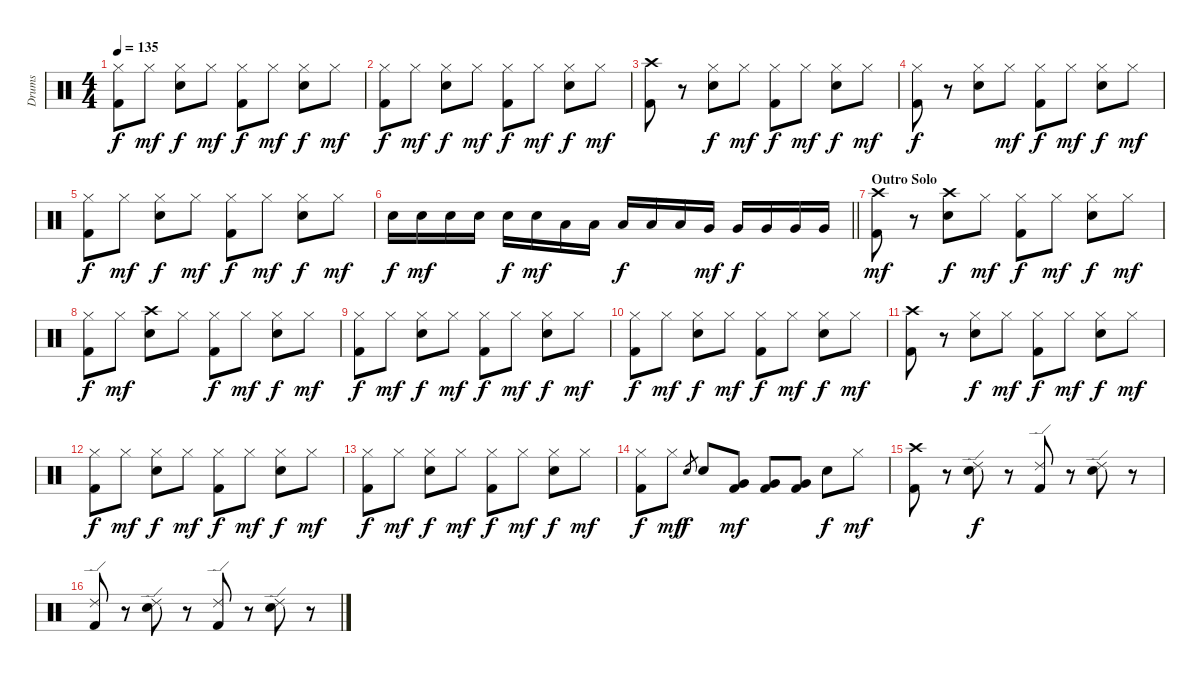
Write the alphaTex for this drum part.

\track ("Drums" "Drums") {instrument percussion}
\staff {score}
\articulation defaults
\ts (4 4)
\tempo 135
\clef neutral
\ks c
("Hi-Hat (closed)" "Kick (hit) 2").8{dy f} "Hi-Hat (closed)".8{dy mf} ("Hi-Hat (closed)" "Snare (hit) 2").8{dy f} "Hi-Hat (closed)".8{dy mf} ("Hi-Hat (closed)" "Kick (hit) 2").8{dy f} "Hi-Hat (closed)".8{dy mf} ("Hi-Hat (closed)" "Snare (hit) 2").8{dy f} "Hi-Hat (closed)".8{dy mf} |
("Hi-Hat (closed)" "Kick (hit) 2").8{dy f} "Hi-Hat (closed)".8{dy mf} ("Hi-Hat (closed)" "Snare (hit) 2").8{dy f} "Hi-Hat (closed)".8{dy mf} ("Hi-Hat (closed)" "Kick (hit) 2").8{dy f} "Hi-Hat (closed)".8{dy mf} ("Hi-Hat (closed)" "Snare (hit) 2").8{dy f} "Hi-Hat (closed)".8{dy mf} |
("Crash high (hit)" "Kick (hit) 2").8 r.8 ("Hi-Hat (closed)" "Snare (hit) 2").8{dy f} "Hi-Hat (closed)".8{dy mf} ("Hi-Hat (closed)" "Kick (hit) 2").8{dy f} "Hi-Hat (closed)".8{dy mf} ("Hi-Hat (closed)" "Snare (hit) 2").8{dy f} "Hi-Hat (closed)".8{dy mf} |
("Hi-Hat (closed)" "Kick (hit) 2").8{dy f} r.8 ("Hi-Hat (closed)" "Snare (hit) 2").8 "Hi-Hat (closed)".8{dy mf} ("Hi-Hat (closed)" "Kick (hit) 2").8{dy f} "Hi-Hat (closed)".8{dy mf} ("Hi-Hat (closed)" "Snare (hit) 2").8{dy f} "Hi-Hat (closed)".8{dy mf} |
("Hi-Hat (closed)" "Kick (hit) 2").8{dy f} "Hi-Hat (closed)".8{dy mf} ("Hi-Hat (closed)" "Snare (hit) 2").8{dy f} "Hi-Hat (closed)".8{dy mf} ("Hi-Hat (closed)" "Kick (hit) 2").8{dy f} "Hi-Hat (closed)".8{dy mf} ("Hi-Hat (closed)" "Snare (hit) 2").8{dy f} "Hi-Hat (closed)".8{dy mf} |
\barLineRight lightlight "Snare (hit) 2".16{dy f} "Snare (hit) 2".16{dy mf} "Snare (hit) 2".16 "Snare (hit) 2".16 "Snare (hit) 2".16{dy f} "Snare (hit) 2".16{dy mf} "Low Tom (hit)".16 "Low Tom (hit)".16 "Low Tom (hit)".16{dy f} "Low Tom (hit)".16 "Low Tom (hit)".16 "Very Low Tom (hit)".16{dy mf} "Very Low Tom (hit)".16{dy f} "Very Low Tom (hit)".16 "Very Low Tom (hit)".16 "Very Low Tom (hit)".16
|
\section ("" "Outro Solo")
("Crash high (hit)" "Kick (hit) 2").8{dy mf} r.8 ("Crash high (hit)" "Snare (hit) 2").8{dy f} "Hi-Hat (closed)".8{dy mf} ("Hi-Hat (closed)" "Kick (hit) 2").8{dy f} "Hi-Hat (closed)".8{dy mf} ("Hi-Hat (closed)" "Snare (hit) 2").8{dy f} "Hi-Hat (closed)".8{dy mf} |
("Hi-Hat (closed)" "Kick (hit) 2").8{dy f} "Hi-Hat (closed)".8{dy mf} ("Crash high (hit)" "Snare (hit) 2").8 "Hi-Hat (closed)".8 ("Hi-Hat (closed)" "Kick (hit) 2").8{dy f} "Hi-Hat (closed)".8{dy mf} ("Hi-Hat (closed)" "Snare (hit) 2").8{dy f} "Hi-Hat (closed)".8{dy mf} |
("Hi-Hat (closed)" "Kick (hit) 2").8{dy f} "Hi-Hat (closed)".8{dy mf} ("Hi-Hat (closed)" "Snare (hit) 2").8{dy f} "Hi-Hat (closed)".8{dy mf} ("Hi-Hat (closed)" "Kick (hit) 2").8{dy f} "Hi-Hat (closed)".8{dy mf} ("Hi-Hat (closed)" "Snare (hit) 2").8{dy f} "Hi-Hat (closed)".8{dy mf} |
("Hi-Hat (closed)" "Kick (hit) 2").8{dy f} "Hi-Hat (closed)".8{dy mf} ("Hi-Hat (closed)" "Snare (hit) 2").8{dy f} "Hi-Hat (closed)".8{dy mf} ("Hi-Hat (closed)" "Kick (hit) 2").8{dy f} "Hi-Hat (closed)".8{dy mf} ("Hi-Hat (closed)" "Snare (hit) 2").8{dy f} "Hi-Hat (closed)".8{dy mf} |
("Crash high (hit)" "Kick (hit) 2").8 r.8 ("Hi-Hat (closed)" "Snare (hit) 2").8{dy f} "Hi-Hat (closed)".8{dy mf} ("Hi-Hat (closed)" "Kick (hit) 2").8{dy f} "Hi-Hat (closed)".8{dy mf} ("Hi-Hat (closed)" "Snare (hit) 2").8{dy f} "Hi-Hat (closed)".8{dy mf} |
("Hi-Hat (closed)" "Kick (hit) 2").8{dy f} "Hi-Hat (closed)".8{dy mf} ("Hi-Hat (closed)" "Snare (hit) 2").8{dy f} "Hi-Hat (closed)".8{dy mf} ("Hi-Hat (closed)" "Kick (hit) 2").8{dy f} "Hi-Hat (closed)".8{dy mf} ("Hi-Hat (closed)" "Snare (hit) 2").8{dy f} "Hi-Hat (closed)".8{dy mf} |
("Hi-Hat (closed)" "Kick (hit) 2").8{dy f} "Hi-Hat (closed)".8{dy mf} ("Hi-Hat (closed)" "Snare (hit) 2").8{dy f} "Hi-Hat (closed)".8{dy mf} ("Hi-Hat (closed)" "Kick (hit) 2").8{dy f} "Hi-Hat (closed)".8{dy mf} ("Hi-Hat (closed)" "Snare (hit) 2").8{dy f} "Hi-Hat (closed)".8{dy mf} |
("Hi-Hat (closed)" "Kick (hit) 2").8{dy f} "Hi-Hat (closed)".8{dy mf} "Snare (hit) 2".8{gr dy f} "Snare (hit) 2".8 ("Very Low Tom (hit)" "Kick (hit) 2").8{dy mf} ("Very Low Tom (hit)" "Kick (hit) 2").8 ("Very Low Tom (hit)" "Kick (hit) 2").8 "Snare (hit) 2".8{dy f} "Hi-Hat (closed)".8{dy mf} |
("Crash high (hit)" "Kick (hit) 2").8 r.8 ("Ride (edge) 2" "Snare (hit) 2").8{dy f} r.8 ("Ride (edge) 2" "Kick (hit) 2").8 r.8 ("Ride (edge) 2" "Snare (hit) 2").8 r.8 |
("Ride (edge) 2" "Kick (hit) 2").8 r.8 ("Ride (edge) 2" "Snare (hit) 2").8 r.8 ("Ride (edge) 2" "Kick (hit) 2").8 r.8 ("Ride (edge) 2" "Snare (hit) 2").8 r.8
